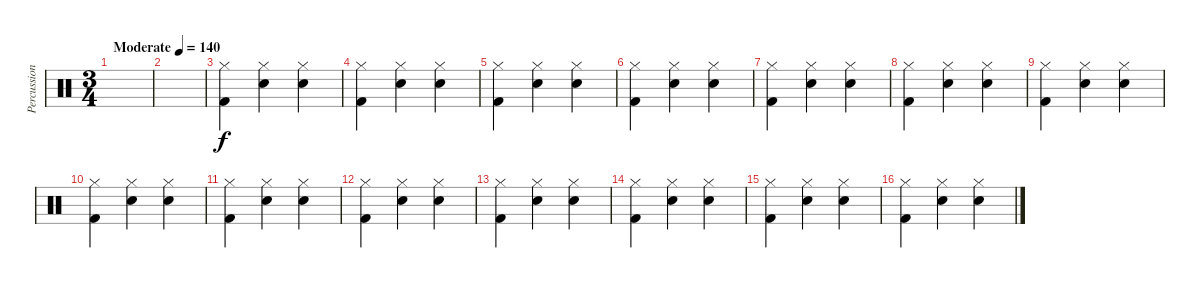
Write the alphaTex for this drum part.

\track ("Percussion" "Percussion") {instrument percussion}
\staff {score}
\articulation defaults
\ts (3 4)
\tempo (140 "Moderate")
\clef neutral
\ks c
|
|
("Hi-Hat (closed)" "Kick (hit) 2").4 ("Snare (hit) 2" "Hi-Hat (closed)").4 ("Snare (hit) 2" "Hi-Hat (closed)").4 |
("Hi-Hat (closed)" "Kick (hit) 2").4 ("Snare (hit) 2" "Hi-Hat (closed)").4 ("Snare (hit) 2" "Hi-Hat (closed)").4 |
("Hi-Hat (closed)" "Kick (hit) 2").4 ("Snare (hit) 2" "Hi-Hat (closed)").4 ("Snare (hit) 2" "Hi-Hat (closed)").4 |
("Hi-Hat (closed)" "Kick (hit) 2").4 ("Snare (hit) 2" "Hi-Hat (closed)").4 ("Snare (hit) 2" "Hi-Hat (closed)").4 |
("Hi-Hat (closed)" "Kick (hit) 2").4 ("Snare (hit) 2" "Hi-Hat (closed)").4 ("Snare (hit) 2" "Hi-Hat (closed)").4 |
("Hi-Hat (closed)" "Kick (hit) 2").4 ("Snare (hit) 2" "Hi-Hat (closed)").4 ("Snare (hit) 2" "Hi-Hat (closed)").4 |
("Hi-Hat (closed)" "Kick (hit) 2").4 ("Snare (hit) 2" "Hi-Hat (closed)").4 ("Snare (hit) 2" "Hi-Hat (closed)").4 |
("Hi-Hat (closed)" "Kick (hit) 2").4 ("Snare (hit) 2" "Hi-Hat (closed)").4 ("Snare (hit) 2" "Hi-Hat (closed)").4 |
("Hi-Hat (closed)" "Kick (hit) 2").4 ("Snare (hit) 2" "Hi-Hat (closed)").4 ("Snare (hit) 2" "Hi-Hat (closed)").4 |
("Hi-Hat (closed)" "Kick (hit) 2").4 ("Snare (hit) 2" "Hi-Hat (closed)").4 ("Snare (hit) 2" "Hi-Hat (closed)").4 |
("Hi-Hat (closed)" "Kick (hit) 2").4 ("Snare (hit) 2" "Hi-Hat (closed)").4 ("Snare (hit) 2" "Hi-Hat (closed)").4 |
("Hi-Hat (closed)" "Kick (hit) 2").4 ("Snare (hit) 2" "Hi-Hat (closed)").4 ("Snare (hit) 2" "Hi-Hat (closed)").4 |
("Hi-Hat (closed)" "Kick (hit) 2").4 ("Snare (hit) 2" "Hi-Hat (closed)").4 ("Snare (hit) 2" "Hi-Hat (closed)").4 |
("Hi-Hat (closed)" "Kick (hit) 2").4 ("Snare (hit) 2" "Hi-Hat (closed)").4 ("Snare (hit) 2" "Hi-Hat (closed)").4
